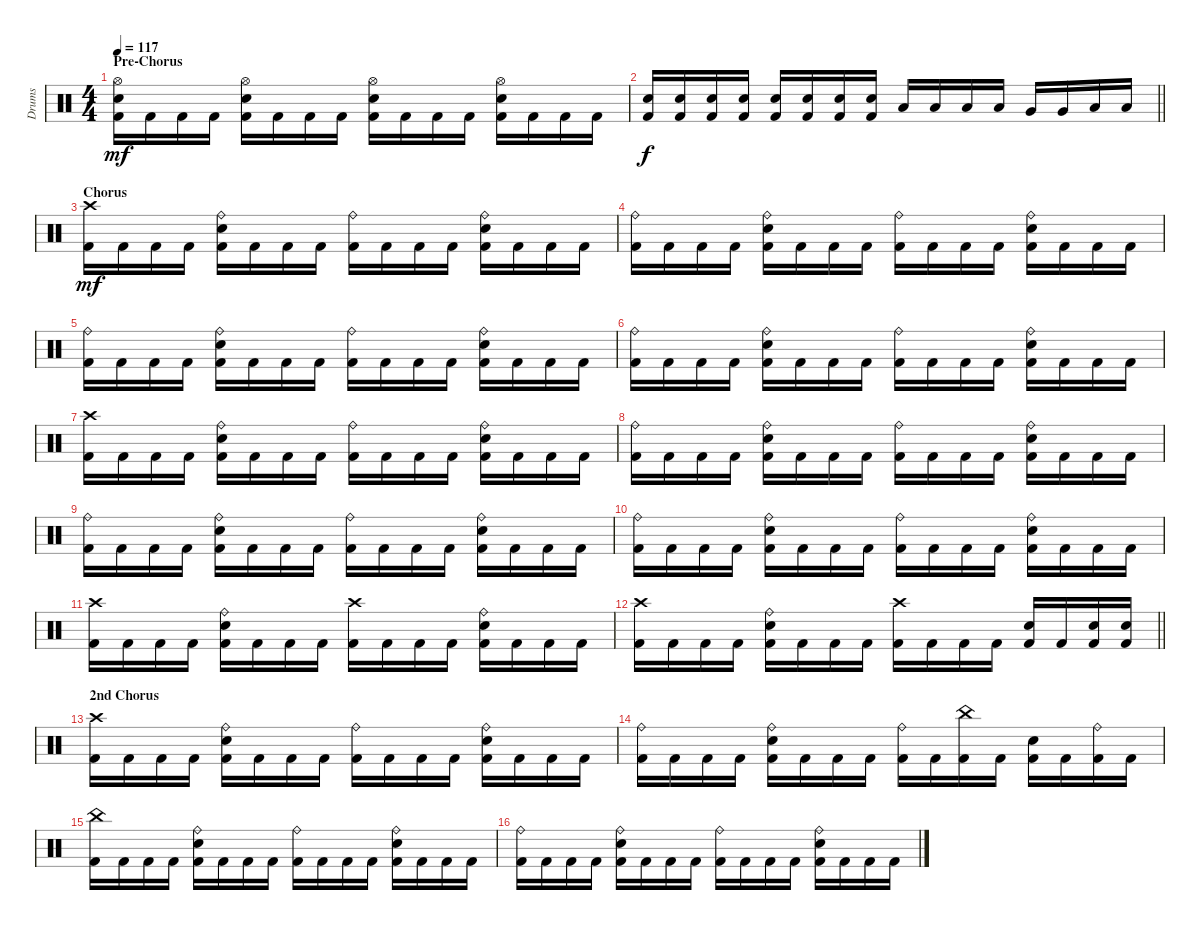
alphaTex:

\track ("Drums" "Drums") {instrument percussion}
\staff {score}
\articulation defaults
\ts (4 4)
\section ("" "Pre-Chorus")
\tempo 117
\clef neutral
\ks c
("Hi-Hat (open)" "Snare (hit) 2" "Kick (hit) 2").16{dy mf} "Kick (hit) 2".16 "Kick (hit) 2".16 "Kick (hit) 2".16 ("Hi-Hat (open)" "Snare (hit) 2" "Kick (hit) 2").16 "Kick (hit) 2".16 "Kick (hit) 2".16 "Kick (hit) 2".16 ("Hi-Hat (open)" "Snare (hit) 2" "Kick (hit) 2").16 "Kick (hit) 2".16 "Kick (hit) 2".16 "Kick (hit) 2".16 ("Hi-Hat (open)" "Snare (hit) 2" "Kick (hit) 2").16 "Kick (hit) 2".16 "Kick (hit) 2".16 "Kick (hit) 2".16 |
\barLineRight lightlight
("Snare (hit) 2" "Kick (hit) 2").16{dy f} ("Snare (hit) 2" "Kick (hit) 2").16 ("Snare (hit) 2" "Kick (hit) 2").16 ("Snare (hit) 2" "Kick (hit) 2").16 ("Snare (hit) 2" "Kick (hit) 2").16 ("Snare (hit) 2" "Kick (hit) 2").16 ("Snare (hit) 2" "Kick (hit) 2").16 ("Snare (hit) 2" "Kick (hit) 2").16 "Low Tom (hit)".16 "Low Tom (hit)".16 "Low Tom (hit)".16 "Low Tom (hit)".16 "Very Low Tom (hit)".16 "Very Low Tom (hit)".16 "Low Floor Tom (hit)".16 "Low Floor Tom (hit)".16 |
\section ("" "Chorus")
("Crash high (hit)" "Kick (hit) 2").16{dy mf} "Kick (hit) 2".16 "Kick (hit) 2".16 "Kick (hit) 2".16 ("Ride (bell)" "Snare (hit) 2" "Kick (hit) 2").16 "Kick (hit) 2".16 "Kick (hit) 2".16 "Kick (hit) 2".16 ("Ride (bell)" "Kick (hit) 2").16 "Kick (hit) 2".16 "Kick (hit) 2".16 "Kick (hit) 2".16 ("Ride (bell)" "Snare (hit) 2" "Kick (hit) 2").16 "Kick (hit) 2".16 "Kick (hit) 2".16 "Kick (hit) 2".16 |
("Ride (bell)" "Kick (hit) 2").16 "Kick (hit) 2".16 "Kick (hit) 2".16 "Kick (hit) 2".16 ("Ride (bell)" "Snare (hit) 2" "Kick (hit) 2").16 "Kick (hit) 2".16 "Kick (hit) 2".16 "Kick (hit) 2".16 ("Ride (bell)" "Kick (hit) 2").16 "Kick (hit) 2".16 "Kick (hit) 2".16 "Kick (hit) 2".16 ("Ride (bell)" "Snare (hit) 2" "Kick (hit) 2").16 "Kick (hit) 2".16 "Kick (hit) 2".16 "Kick (hit) 2".16 |
("Ride (bell)" "Kick (hit) 2").16 "Kick (hit) 2".16 "Kick (hit) 2".16 "Kick (hit) 2".16 ("Ride (bell)" "Snare (hit) 2" "Kick (hit) 2").16 "Kick (hit) 2".16 "Kick (hit) 2".16 "Kick (hit) 2".16 ("Ride (bell)" "Kick (hit) 2").16 "Kick (hit) 2".16 "Kick (hit) 2".16 "Kick (hit) 2".16 ("Ride (bell)" "Snare (hit) 2" "Kick (hit) 2").16 "Kick (hit) 2".16 "Kick (hit) 2".16 "Kick (hit) 2".16 |
("Ride (bell)" "Kick (hit) 2").16 "Kick (hit) 2".16 "Kick (hit) 2".16 "Kick (hit) 2".16 ("Ride (bell)" "Snare (hit) 2" "Kick (hit) 2").16 "Kick (hit) 2".16 "Kick (hit) 2".16 "Kick (hit) 2".16 ("Ride (bell)" "Kick (hit) 2").16 "Kick (hit) 2".16 "Kick (hit) 2".16 "Kick (hit) 2".16 ("Ride (bell)" "Snare (hit) 2" "Kick (hit) 2").16 "Kick (hit) 2".16 "Kick (hit) 2".16 "Kick (hit) 2".16 |
("Crash high (hit)" "Kick (hit) 2").16 "Kick (hit) 2".16 "Kick (hit) 2".16 "Kick (hit) 2".16 ("Ride (bell)" "Snare (hit) 2" "Kick (hit) 2").16 "Kick (hit) 2".16 "Kick (hit) 2".16 "Kick (hit) 2".16 ("Ride (bell)" "Kick (hit) 2").16 "Kick (hit) 2".16 "Kick (hit) 2".16 "Kick (hit) 2".16 ("Ride (bell)" "Snare (hit) 2" "Kick (hit) 2").16 "Kick (hit) 2".16 "Kick (hit) 2".16 "Kick (hit) 2".16 |
("Ride (bell)" "Kick (hit) 2").16 "Kick (hit) 2".16 "Kick (hit) 2".16 "Kick (hit) 2".16 ("Ride (bell)" "Snare (hit) 2" "Kick (hit) 2").16 "Kick (hit) 2".16 "Kick (hit) 2".16 "Kick (hit) 2".16 ("Ride (bell)" "Kick (hit) 2").16 "Kick (hit) 2".16 "Kick (hit) 2".16 "Kick (hit) 2".16 ("Ride (bell)" "Snare (hit) 2" "Kick (hit) 2").16 "Kick (hit) 2".16 "Kick (hit) 2".16 "Kick (hit) 2".16 |
("Ride (bell)" "Kick (hit) 2").16 "Kick (hit) 2".16 "Kick (hit) 2".16 "Kick (hit) 2".16 ("Ride (bell)" "Snare (hit) 2" "Kick (hit) 2").16 "Kick (hit) 2".16 "Kick (hit) 2".16 "Kick (hit) 2".16 ("Ride (bell)" "Kick (hit) 2").16 "Kick (hit) 2".16 "Kick (hit) 2".16 "Kick (hit) 2".16 ("Ride (bell)" "Snare (hit) 2" "Kick (hit) 2").16 "Kick (hit) 2".16 "Kick (hit) 2".16 "Kick (hit) 2".16 |
("Ride (bell)" "Kick (hit) 2").16 "Kick (hit) 2".16 "Kick (hit) 2".16 "Kick (hit) 2".16 ("Ride (bell)" "Snare (hit) 2" "Kick (hit) 2").16 "Kick (hit) 2".16 "Kick (hit) 2".16 "Kick (hit) 2".16 ("Ride (bell)" "Kick (hit) 2").16 "Kick (hit) 2".16 "Kick (hit) 2".16 "Kick (hit) 2".16 ("Ride (bell)" "Snare (hit) 2" "Kick (hit) 2").16 "Kick (hit) 2".16 "Kick (hit) 2".16 "Kick (hit) 2".16 |
("Crash high (hit)" "Kick (hit) 2").16 "Kick (hit) 2".16 "Kick (hit) 2".16 "Kick (hit) 2".16 ("Ride (bell)" "Snare (hit) 2" "Kick (hit) 2").16 "Kick (hit) 2".16 "Kick (hit) 2".16 "Kick (hit) 2".16 ("Crash high (hit)" "Kick (hit) 2").16 "Kick (hit) 2".16 "Kick (hit) 2".16 "Kick (hit) 2".16 ("Ride (bell)" "Snare (hit) 2" "Kick (hit) 2").16 "Kick (hit) 2".16 "Kick (hit) 2".16 "Kick (hit) 2".16 |
\barLineRight lightlight
("Crash high (hit)" "Kick (hit) 2").16 "Kick (hit) 2".16 "Kick (hit) 2".16 "Kick (hit) 2".16 ("Ride (bell)" "Snare (hit) 2" "Kick (hit) 2").16 "Kick (hit) 2".16 "Kick (hit) 2".16 "Kick (hit) 2".16 ("Crash high (hit)" "Kick (hit) 2").16 "Kick (hit) 2".16 "Kick (hit) 2".16 "Kick (hit) 2".16 ("Snare (hit) 2" "Kick (hit) 2").16 "Kick (hit) 2".16 ("Snare (hit) 2" "Kick (hit) 2").16 ("Snare (hit) 2" "Kick (hit) 2").16 |
\section ("" "2nd Chorus")
("Crash high (hit)" "Kick (hit) 2").16 "Kick (hit) 2".16 "Kick (hit) 2".16 "Kick (hit) 2".16 ("Ride (bell)" "Snare (hit) 2" "Kick (hit) 2").16 "Kick (hit) 2".16 "Kick (hit) 2".16 "Kick (hit) 2".16 ("Ride (bell)" "Kick (hit) 2").16 "Kick (hit) 2".16 "Kick (hit) 2".16 "Kick (hit) 2".16 ("Ride (bell)" "Snare (hit) 2" "Kick (hit) 2").16 "Kick (hit) 2".16 "Kick (hit) 2".16 "Kick (hit) 2".16 |
("Ride (bell)" "Kick (hit) 2").16 "Kick (hit) 2".16 "Kick (hit) 2".16 "Kick (hit) 2".16 ("Ride (bell)" "Snare (hit) 2" "Kick (hit) 2").16 "Kick (hit) 2".16 "Kick (hit) 2".16 "Kick (hit) 2".16 ("Ride (bell)" "Kick (hit) 2").16 "Kick (hit) 2".16 ("China (hit)" "Kick (hit) 2").16 "Kick (hit) 2".16 ("Snare (hit) 2" "Kick (hit) 2").16 "Kick (hit) 2".16 ("Ride (bell)" "Kick (hit) 2").16 "Kick (hit) 2".16 |
("China (hit)" "Kick (hit) 2").16 "Kick (hit) 2".16 "Kick (hit) 2".16 "Kick (hit) 2".16 ("Ride (bell)" "Snare (hit) 2" "Kick (hit) 2").16 "Kick (hit) 2".16 "Kick (hit) 2".16 "Kick (hit) 2".16 ("Ride (bell)" "Kick (hit) 2").16 "Kick (hit) 2".16 "Kick (hit) 2".16 "Kick (hit) 2".16 ("Ride (bell)" "Snare (hit) 2" "Kick (hit) 2").16 "Kick (hit) 2".16 "Kick (hit) 2".16 "Kick (hit) 2".16 |
("Ride (bell)" "Kick (hit) 2").16 "Kick (hit) 2".16 "Kick (hit) 2".16 "Kick (hit) 2".16 ("Ride (bell)" "Snare (hit) 2" "Kick (hit) 2").16 "Kick (hit) 2".16 "Kick (hit) 2".16 "Kick (hit) 2".16 ("Ride (bell)" "Kick (hit) 2").16 "Kick (hit) 2".16 "Kick (hit) 2".16 "Kick (hit) 2".16 ("Ride (bell)" "Snare (hit) 2" "Kick (hit) 2").16 "Kick (hit) 2".16 "Kick (hit) 2".16 "Kick (hit) 2".16
